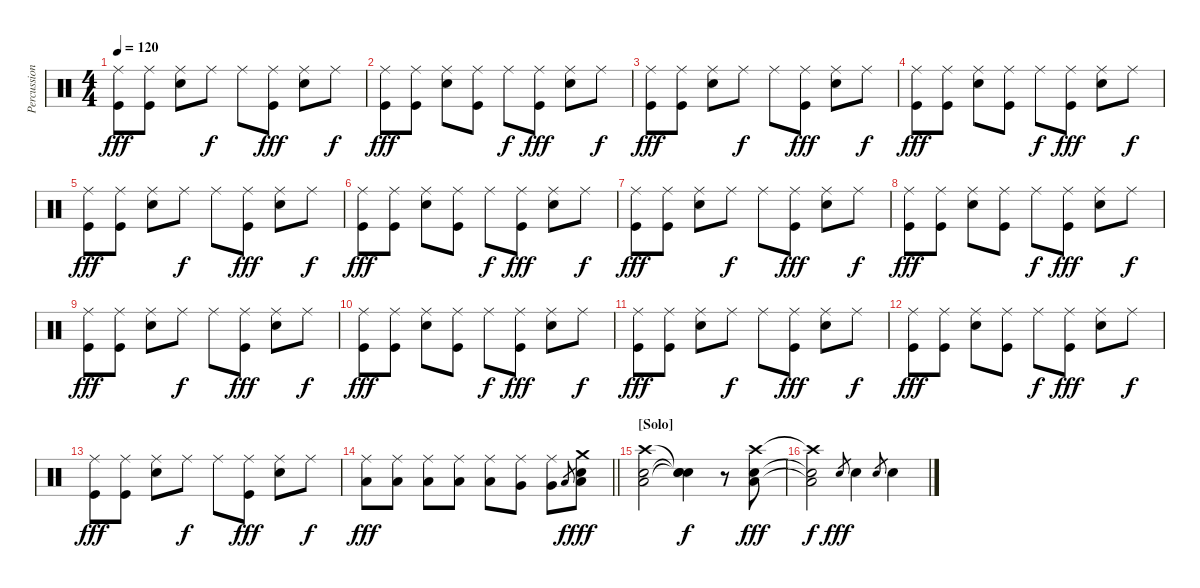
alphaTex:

\track ("Percussion" "Percussion") {instrument percussion}
\staff {score}
\articulation defaults
\ts (4 4)
\tempo 120
\clef neutral
\ks c
("Ride (middle)" "Kick (hit)").8{dy fff} ("Ride (middle)" "Kick (hit)").8 ("Ride (middle)" "Snare (hit) 2").8 "Ride (middle)".8{dy f} "Ride (middle)".8 ("Ride (middle)" "Kick (hit)").8{dy fff} ("Ride (middle)" "Snare (hit) 2").8 "Ride (middle)".8{dy f} |
("Ride (middle)" "Kick (hit)").8{dy fff} ("Ride (middle)" "Kick (hit)").8 ("Ride (middle)" "Snare (hit) 2").8 ("Ride (middle)" "Kick (hit)").8 "Ride (middle)".8{dy f} ("Ride (middle)" "Kick (hit)").8{dy fff} ("Ride (middle)" "Snare (hit) 2").8 "Ride (middle)".8{dy f} |
("Ride (middle)" "Kick (hit)").8{dy fff} ("Ride (middle)" "Kick (hit)").8 ("Ride (middle)" "Snare (hit) 2").8 "Ride (middle)".8{dy f} "Ride (middle)".8 ("Ride (middle)" "Kick (hit)").8{dy fff} ("Ride (middle)" "Snare (hit) 2").8 "Ride (middle)".8{dy f} |
("Ride (middle)" "Kick (hit)").8{dy fff} ("Ride (middle)" "Kick (hit)").8 ("Ride (middle)" "Snare (hit) 2").8 ("Ride (middle)" "Kick (hit)").8 "Ride (middle)".8{dy f} ("Ride (middle)" "Kick (hit)").8{dy fff} ("Ride (middle)" "Snare (hit) 2").8 "Ride (middle)".8{dy f} |
("Ride (middle)" "Kick (hit)").8{dy fff} ("Ride (middle)" "Kick (hit)").8 ("Ride (middle)" "Snare (hit) 2").8 "Ride (middle)".8{dy f} "Ride (middle)".8 ("Ride (middle)" "Kick (hit)").8{dy fff} ("Ride (middle)" "Snare (hit) 2").8 "Ride (middle)".8{dy f} |
("Ride (middle)" "Kick (hit)").8{dy fff} ("Ride (middle)" "Kick (hit)").8 ("Ride (middle)" "Snare (hit) 2").8 ("Ride (middle)" "Kick (hit)").8 "Ride (middle)".8{dy f} ("Ride (middle)" "Kick (hit)").8{dy fff} ("Ride (middle)" "Snare (hit) 2").8 "Ride (middle)".8{dy f} |
("Ride (middle)" "Kick (hit)").8{dy fff} ("Ride (middle)" "Kick (hit)").8 ("Ride (middle)" "Snare (hit) 2").8 "Ride (middle)".8{dy f} "Ride (middle)".8 ("Ride (middle)" "Kick (hit)").8{dy fff} ("Ride (middle)" "Snare (hit) 2").8 "Ride (middle)".8{dy f} |
("Ride (middle)" "Kick (hit)").8{dy fff} ("Ride (middle)" "Kick (hit)").8 ("Ride (middle)" "Snare (hit) 2").8 ("Ride (middle)" "Kick (hit)").8 "Ride (middle)".8{dy f} ("Ride (middle)" "Kick (hit)").8{dy fff} ("Ride (middle)" "Snare (hit) 2").8 "Ride (middle)".8{dy f} |
("Ride (middle)" "Kick (hit)").8{dy fff} ("Ride (middle)" "Kick (hit)").8 ("Ride (middle)" "Snare (hit) 2").8 "Ride (middle)".8{dy f} "Ride (middle)".8 ("Ride (middle)" "Kick (hit)").8{dy fff} ("Ride (middle)" "Snare (hit) 2").8 "Ride (middle)".8{dy f} |
("Ride (middle)" "Kick (hit)").8{dy fff} ("Ride (middle)" "Kick (hit)").8 ("Ride (middle)" "Snare (hit) 2").8 ("Ride (middle)" "Kick (hit)").8 "Ride (middle)".8{dy f} ("Ride (middle)" "Kick (hit)").8{dy fff} ("Ride (middle)" "Snare (hit) 2").8 "Ride (middle)".8{dy f} |
("Ride (middle)" "Kick (hit)").8{dy fff} ("Ride (middle)" "Kick (hit)").8 ("Ride (middle)" "Snare (hit) 2").8 "Ride (middle)".8{dy f} "Ride (middle)".8 ("Ride (middle)" "Kick (hit)").8{dy fff} ("Ride (middle)" "Snare (hit) 2").8 "Ride (middle)".8{dy f} |
("Ride (middle)" "Kick (hit)").8{dy fff} ("Ride (middle)" "Kick (hit)").8 ("Ride (middle)" "Snare (hit) 2").8 ("Ride (middle)" "Kick (hit)").8 "Ride (middle)".8{dy f} ("Ride (middle)" "Kick (hit)").8{dy fff} ("Ride (middle)" "Snare (hit) 2").8 "Ride (middle)".8{dy f} |
("Ride (middle)" "Kick (hit)").8{dy fff} ("Ride (middle)" "Kick (hit)").8 ("Ride (middle)" "Snare (hit) 2").8 "Ride (middle)".8{dy f} "Ride (middle)".8 ("Ride (middle)" "Kick (hit)").8{dy fff} ("Ride (middle)" "Snare (hit) 2").8 "Ride (middle)".8{dy f} |
\barLineRight lightlight
("Ride (middle)" "Low Tom (hit)").8{dy fff} ("Ride (middle)" "Low Tom (hit)").8 ("Ride (middle)" "Low Tom (hit)").8 ("Ride (middle)" "Low Tom (hit)").8 ("Ride (middle)" "Low Tom (hit)").8 ("Ride (middle)" "Very Low Tom (hit)").8 ("Ride (middle)" "Very Low Tom (hit)").8 "Low Tom (hit)".8{gr dy f} ("Crash medium (hit)" "Low Tom (hit)" "Snare (hit) 2").8{dy fff} |
\section ("" "[Solo]")
("Crash high (hit)" "Low Tom (hit)" "Snare (hit) 2").2 ("Snare (hit)"{t} "Snare (hit)"{t} "Snare (hit)"{t}).4{dy f} r.8 ("Crash high (hit)" "Low Floor Tom (hit)" "Snare (hit) 2").8{dy fff} |
("Crash high (hit)"{t} "Low Floor Tom (hit)"{t} "Snare (hit) 2"{t}).2{dy f} "Snare (hit) 2".8{gr dy fff} "Snare (hit) 2".4 "Snare (hit) 2".8{gr} "Snare (hit) 2".4
